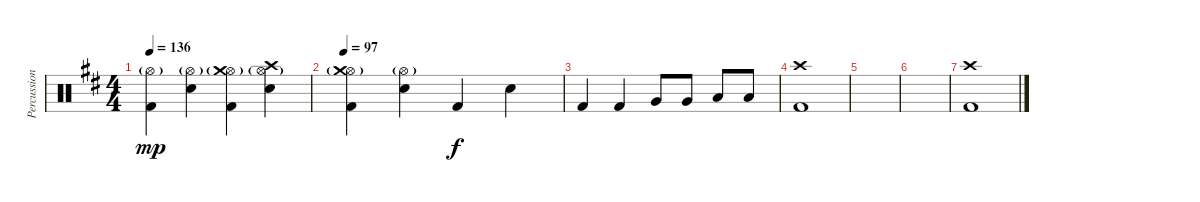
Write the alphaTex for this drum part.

\track ("Percussions" "Percussion") {instrument percussion}
\staff {score}
\articulation defaults
\ts (4 4)
\tempo 136
\clef neutral
\ks d
("Hi-Hat (open)"{g} "Kick (hit) 2").4{dy mp} ("Hi-Hat (open)"{g} "Snare (hit) 2").4 ("Hi-Hat (open)"{g} "Kick (hit) 2" "Crash medium (hit)").4 ("Hi-Hat (open)"{g} "Snare (hit) 2" "Crash high (hit)").4 |
\tempo 97
("Hi-Hat (open)"{g} "Kick (hit) 2" "Crash medium (hit)").4 ("Hi-Hat (open)"{g} "Snare (hit) 2").4 "Kick (hit) 2".4{dy f} "Snare (hit) 2".4 |
"Kick (hit) 2".4 "Kick (hit) 2".4 "Very Low Tom (hit)".8 "Very Low Tom (hit)".8 "Low Floor Tom (hit)".8 "Low Floor Tom (hit)".8 |
("Crash high (hit)" "Kick (hit) 2").1 |
|
|
("Crash high (hit)" "Kick (hit) 2").1
